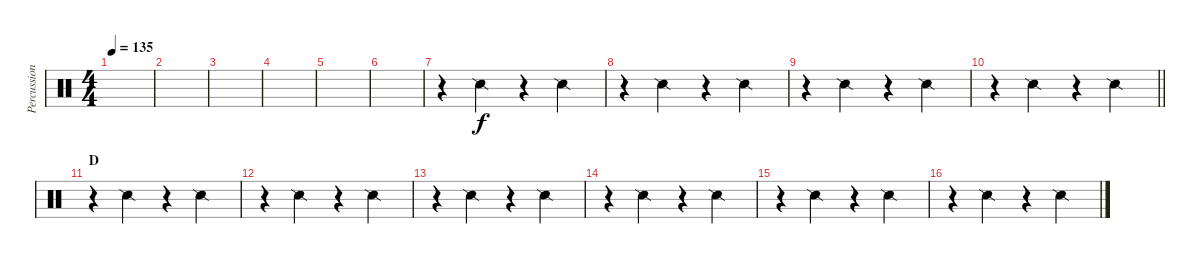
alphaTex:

\track ("Percussion" "Percussion") {instrument percussion}
\staff {score}
\articulation defaults
\ts (4 4)
\tempo 135
\clef neutral
\ks c
|
|
|
|
|
|
r.4 "Snare (side stick) 2".4 r.4 "Snare (side stick) 2".4 |
r.4 "Snare (side stick) 2".4 r.4 "Snare (side stick) 2".4 |
r.4 "Snare (side stick) 2".4 r.4 "Snare (side stick) 2".4 |
\barLineRight lightlight
r.4 "Snare (side stick) 2".4 r.4 "Snare (side stick) 2".4 |
\section ("" "D")
r.4 "Snare (side stick) 2".4 r.4 "Snare (side stick) 2".4 |
r.4 "Snare (side stick) 2".4 r.4 "Snare (side stick) 2".4 |
r.4 "Snare (side stick) 2".4 r.4 "Snare (side stick) 2".4 |
r.4 "Snare (side stick) 2".4 r.4 "Snare (side stick) 2".4 |
r.4 "Snare (side stick) 2".4 r.4 "Snare (side stick) 2".4 |
r.4 "Snare (side stick) 2".4 r.4 "Snare (side stick) 2".4
